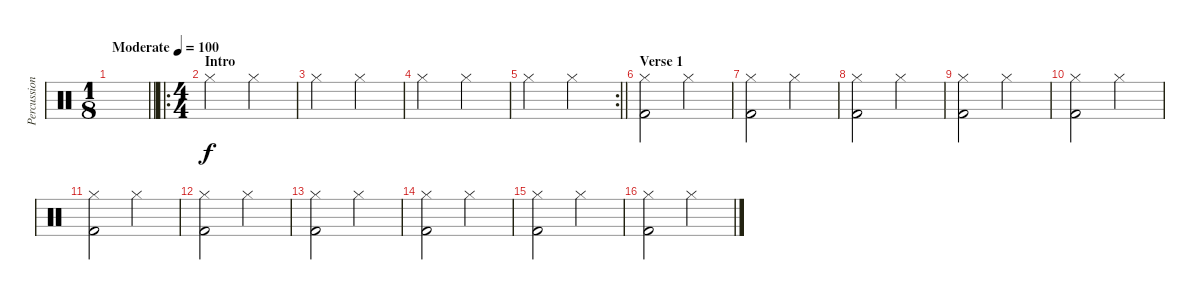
\track ("Percussion" "Percussion") {instrument percussion}
\staff {score}
\articulation defaults
\ts (1 8)
\tempo (100 "Moderate")
\clef neutral
\barLineRight lightlight
\ks c
|
\ro
\ts (4 4)
\section ("" "Intro")
"Hi-Hat (closed)".2 "Hi-Hat (closed)".2 |
"Hi-Hat (closed)".2 "Hi-Hat (closed)".2 |
"Hi-Hat (closed)".2 "Hi-Hat (closed)".2 |
\rc 2
\barLineRight lightlight "Hi-Hat (closed)".2 "Hi-Hat (closed)".2
|
\section ("" "Verse 1")
("Hi-Hat (closed)" "Kick (hit) 2").2 "Hi-Hat (closed)".2 |
("Hi-Hat (closed)" "Kick (hit) 2").2 "Hi-Hat (closed)".2 |
("Hi-Hat (closed)" "Kick (hit) 2").2 "Hi-Hat (closed)".2 |
("Hi-Hat (closed)" "Kick (hit) 2").2 "Hi-Hat (closed)".2 |
("Hi-Hat (closed)" "Kick (hit) 2").2 "Hi-Hat (closed)".2 |
("Hi-Hat (closed)" "Kick (hit) 2").2 "Hi-Hat (closed)".2 |
("Hi-Hat (closed)" "Kick (hit) 2").2 "Hi-Hat (closed)".2 |
("Hi-Hat (closed)" "Kick (hit) 2").2 "Hi-Hat (closed)".2 |
("Hi-Hat (closed)" "Kick (hit) 2").2 "Hi-Hat (closed)".2 |
("Hi-Hat (closed)" "Kick (hit) 2").2 "Hi-Hat (closed)".2 |
("Hi-Hat (closed)" "Kick (hit) 2").2 "Hi-Hat (closed)".2
